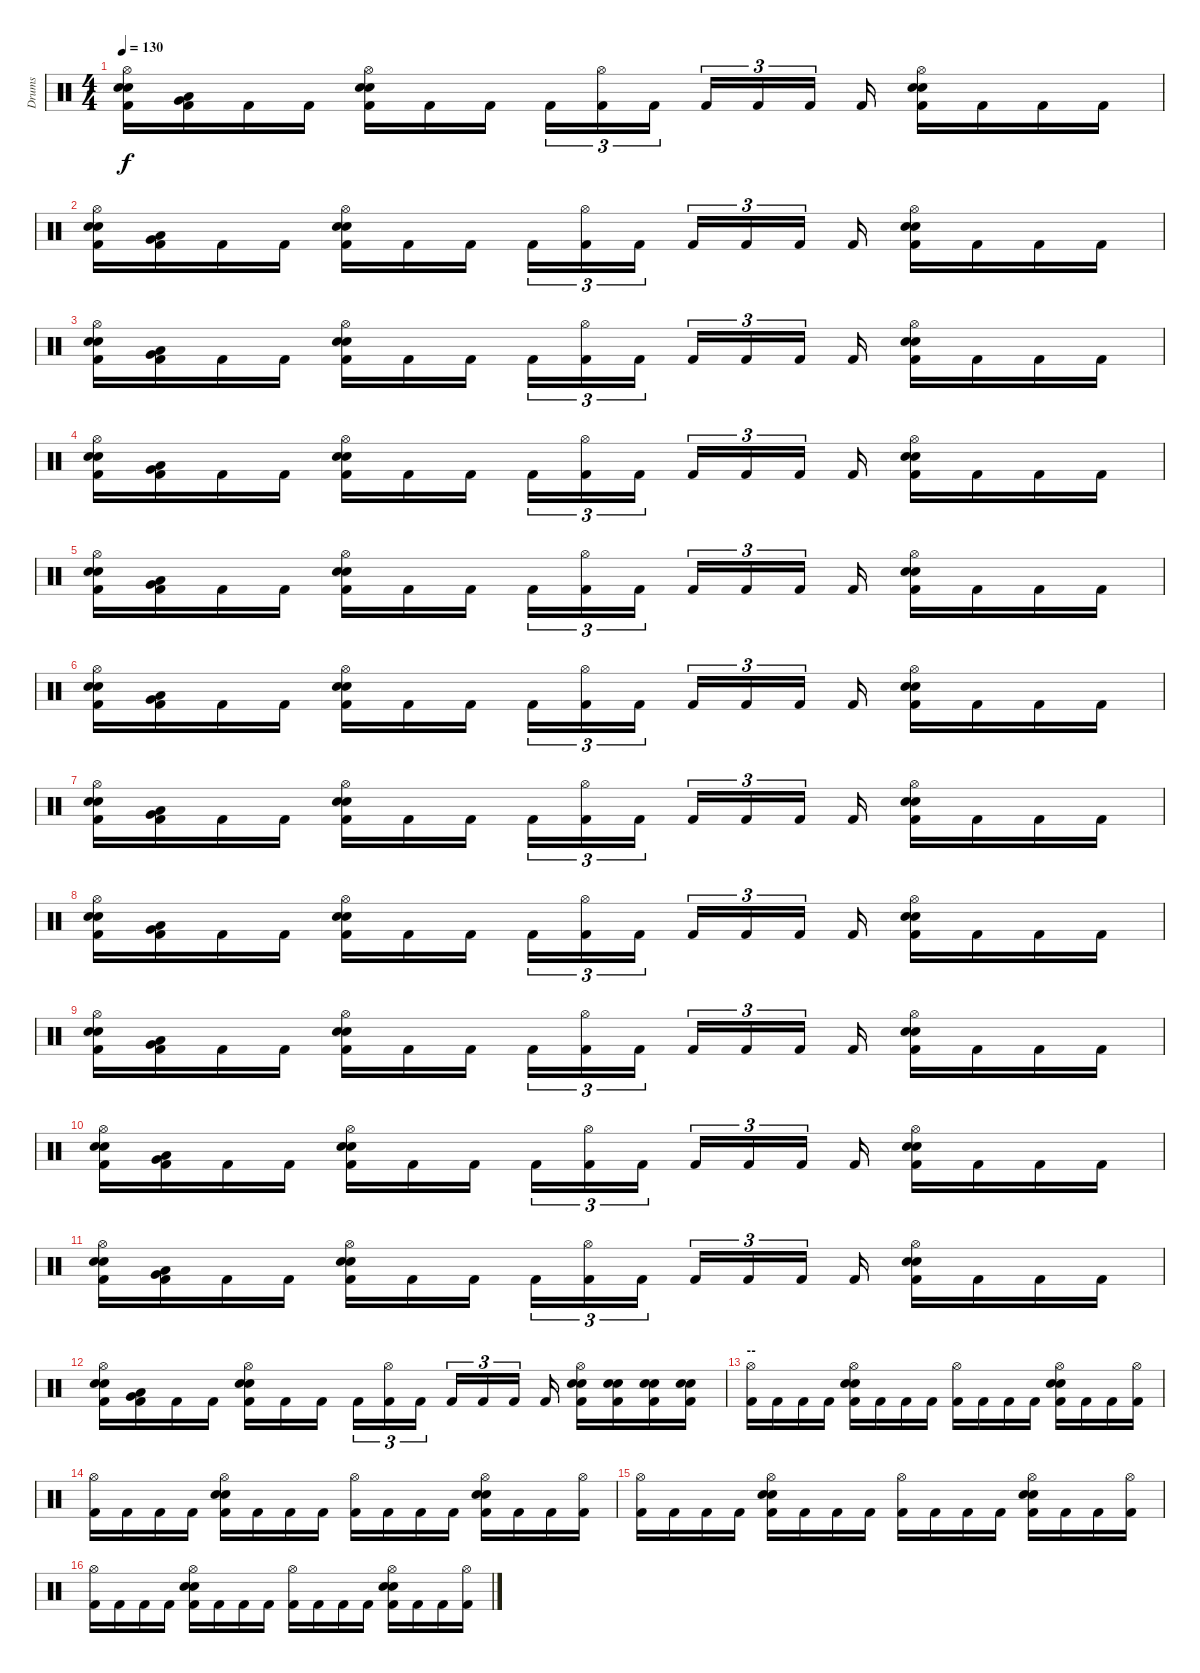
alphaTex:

\track ("Drums" "Drums") {instrument percussion}
\staff {score}
\articulation defaults
\ts (4 4)
\tempo 130
\clef neutral
\ks c
("Hi-Hat (open)" "Snare (hit) 2" "Electric Snare (hit)" "Kick (hit) 2").16{dy f} ("Very Low Tom (hit)" "Low Tom (hit)" "Kick (hit) 2").16 "Kick (hit) 2".16 "Kick (hit) 2".16 ("Hi-Hat (open)" "Snare (hit) 2" "Electric Snare (hit)" "Kick (hit) 2").16 "Kick (hit) 2".16 "Kick (hit) 2".16 "Kick (hit) 2".16{tu (3 2)} ("Hi-Hat (open)" "Kick (hit) 2").16{tu (3 2)} "Kick (hit) 2".16{tu (3 2)} "Kick (hit) 2".16{tu (3 2)} "Kick (hit) 2".16{tu (3 2)} "Kick (hit) 2".16{tu (3 2)} "Kick (hit) 2".16 ("Hi-Hat (open)" "Snare (hit) 2" "Electric Snare (hit)" "Kick (hit) 2").16 "Kick (hit) 2".16 "Kick (hit) 2".16 "Kick (hit) 2".16 |
("Hi-Hat (open)" "Snare (hit) 2" "Electric Snare (hit)" "Kick (hit) 2").16 ("Very Low Tom (hit)" "Low Tom (hit)" "Kick (hit) 2").16 "Kick (hit) 2".16 "Kick (hit) 2".16 ("Hi-Hat (open)" "Snare (hit) 2" "Electric Snare (hit)" "Kick (hit) 2").16 "Kick (hit) 2".16 "Kick (hit) 2".16 "Kick (hit) 2".16{tu (3 2)} ("Hi-Hat (open)" "Kick (hit) 2").16{tu (3 2)} "Kick (hit) 2".16{tu (3 2)} "Kick (hit) 2".16{tu (3 2)} "Kick (hit) 2".16{tu (3 2)} "Kick (hit) 2".16{tu (3 2)} "Kick (hit) 2".16 ("Hi-Hat (open)" "Snare (hit) 2" "Electric Snare (hit)" "Kick (hit) 2").16 "Kick (hit) 2".16 "Kick (hit) 2".16 "Kick (hit) 2".16 |
("Hi-Hat (open)" "Snare (hit) 2" "Electric Snare (hit)" "Kick (hit) 2").16 ("Very Low Tom (hit)" "Low Tom (hit)" "Kick (hit) 2").16 "Kick (hit) 2".16 "Kick (hit) 2".16 ("Hi-Hat (open)" "Snare (hit) 2" "Electric Snare (hit)" "Kick (hit) 2").16 "Kick (hit) 2".16 "Kick (hit) 2".16 "Kick (hit) 2".16{tu (3 2)} ("Hi-Hat (open)" "Kick (hit) 2").16{tu (3 2)} "Kick (hit) 2".16{tu (3 2)} "Kick (hit) 2".16{tu (3 2)} "Kick (hit) 2".16{tu (3 2)} "Kick (hit) 2".16{tu (3 2)} "Kick (hit) 2".16 ("Hi-Hat (open)" "Snare (hit) 2" "Electric Snare (hit)" "Kick (hit) 2").16 "Kick (hit) 2".16 "Kick (hit) 2".16 "Kick (hit) 2".16 |
("Hi-Hat (open)" "Snare (hit) 2" "Electric Snare (hit)" "Kick (hit) 2").16 ("Very Low Tom (hit)" "Low Tom (hit)" "Kick (hit) 2").16 "Kick (hit) 2".16 "Kick (hit) 2".16 ("Hi-Hat (open)" "Snare (hit) 2" "Electric Snare (hit)" "Kick (hit) 2").16 "Kick (hit) 2".16 "Kick (hit) 2".16 "Kick (hit) 2".16{tu (3 2)} ("Hi-Hat (open)" "Kick (hit) 2").16{tu (3 2)} "Kick (hit) 2".16{tu (3 2)} "Kick (hit) 2".16{tu (3 2)} "Kick (hit) 2".16{tu (3 2)} "Kick (hit) 2".16{tu (3 2)} "Kick (hit) 2".16 ("Hi-Hat (open)" "Snare (hit) 2" "Electric Snare (hit)" "Kick (hit) 2").16 "Kick (hit) 2".16 "Kick (hit) 2".16 "Kick (hit) 2".16 |
("Hi-Hat (open)" "Snare (hit) 2" "Electric Snare (hit)" "Kick (hit) 2").16 ("Very Low Tom (hit)" "Low Tom (hit)" "Kick (hit) 2").16 "Kick (hit) 2".16 "Kick (hit) 2".16 ("Hi-Hat (open)" "Snare (hit) 2" "Electric Snare (hit)" "Kick (hit) 2").16 "Kick (hit) 2".16 "Kick (hit) 2".16 "Kick (hit) 2".16{tu (3 2)} ("Hi-Hat (open)" "Kick (hit) 2").16{tu (3 2)} "Kick (hit) 2".16{tu (3 2)} "Kick (hit) 2".16{tu (3 2)} "Kick (hit) 2".16{tu (3 2)} "Kick (hit) 2".16{tu (3 2)} "Kick (hit) 2".16 ("Hi-Hat (open)" "Snare (hit) 2" "Electric Snare (hit)" "Kick (hit) 2").16 "Kick (hit) 2".16 "Kick (hit) 2".16 "Kick (hit) 2".16 |
("Hi-Hat (open)" "Snare (hit) 2" "Electric Snare (hit)" "Kick (hit) 2").16 ("Very Low Tom (hit)" "Low Tom (hit)" "Kick (hit) 2").16 "Kick (hit) 2".16 "Kick (hit) 2".16 ("Hi-Hat (open)" "Snare (hit) 2" "Electric Snare (hit)" "Kick (hit) 2").16 "Kick (hit) 2".16 "Kick (hit) 2".16 "Kick (hit) 2".16{tu (3 2)} ("Hi-Hat (open)" "Kick (hit) 2").16{tu (3 2)} "Kick (hit) 2".16{tu (3 2)} "Kick (hit) 2".16{tu (3 2)} "Kick (hit) 2".16{tu (3 2)} "Kick (hit) 2".16{tu (3 2)} "Kick (hit) 2".16 ("Hi-Hat (open)" "Snare (hit) 2" "Electric Snare (hit)" "Kick (hit) 2").16 "Kick (hit) 2".16 "Kick (hit) 2".16 "Kick (hit) 2".16 |
("Hi-Hat (open)" "Snare (hit) 2" "Electric Snare (hit)" "Kick (hit) 2").16 ("Very Low Tom (hit)" "Low Tom (hit)" "Kick (hit) 2").16 "Kick (hit) 2".16 "Kick (hit) 2".16 ("Hi-Hat (open)" "Snare (hit) 2" "Electric Snare (hit)" "Kick (hit) 2").16 "Kick (hit) 2".16 "Kick (hit) 2".16 "Kick (hit) 2".16{tu (3 2)} ("Hi-Hat (open)" "Kick (hit) 2").16{tu (3 2)} "Kick (hit) 2".16{tu (3 2)} "Kick (hit) 2".16{tu (3 2)} "Kick (hit) 2".16{tu (3 2)} "Kick (hit) 2".16{tu (3 2)} "Kick (hit) 2".16 ("Hi-Hat (open)" "Snare (hit) 2" "Electric Snare (hit)" "Kick (hit) 2").16 "Kick (hit) 2".16 "Kick (hit) 2".16 "Kick (hit) 2".16 |
("Hi-Hat (open)" "Snare (hit) 2" "Electric Snare (hit)" "Kick (hit) 2").16 ("Very Low Tom (hit)" "Low Tom (hit)" "Kick (hit) 2").16 "Kick (hit) 2".16 "Kick (hit) 2".16 ("Hi-Hat (open)" "Snare (hit) 2" "Electric Snare (hit)" "Kick (hit) 2").16 "Kick (hit) 2".16 "Kick (hit) 2".16 "Kick (hit) 2".16{tu (3 2)} ("Hi-Hat (open)" "Kick (hit) 2").16{tu (3 2)} "Kick (hit) 2".16{tu (3 2)} "Kick (hit) 2".16{tu (3 2)} "Kick (hit) 2".16{tu (3 2)} "Kick (hit) 2".16{tu (3 2)} "Kick (hit) 2".16 ("Hi-Hat (open)" "Snare (hit) 2" "Electric Snare (hit)" "Kick (hit) 2").16 "Kick (hit) 2".16 "Kick (hit) 2".16 "Kick (hit) 2".16 |
("Hi-Hat (open)" "Snare (hit) 2" "Electric Snare (hit)" "Kick (hit) 2").16 ("Very Low Tom (hit)" "Low Tom (hit)" "Kick (hit) 2").16 "Kick (hit) 2".16 "Kick (hit) 2".16 ("Hi-Hat (open)" "Snare (hit) 2" "Electric Snare (hit)" "Kick (hit) 2").16 "Kick (hit) 2".16 "Kick (hit) 2".16 "Kick (hit) 2".16{tu (3 2)} ("Hi-Hat (open)" "Kick (hit) 2").16{tu (3 2)} "Kick (hit) 2".16{tu (3 2)} "Kick (hit) 2".16{tu (3 2)} "Kick (hit) 2".16{tu (3 2)} "Kick (hit) 2".16{tu (3 2)} "Kick (hit) 2".16 ("Hi-Hat (open)" "Snare (hit) 2" "Electric Snare (hit)" "Kick (hit) 2").16 "Kick (hit) 2".16 "Kick (hit) 2".16 "Kick (hit) 2".16 |
("Hi-Hat (open)" "Snare (hit) 2" "Electric Snare (hit)" "Kick (hit) 2").16 ("Very Low Tom (hit)" "Low Tom (hit)" "Kick (hit) 2").16 "Kick (hit) 2".16 "Kick (hit) 2".16 ("Hi-Hat (open)" "Snare (hit) 2" "Electric Snare (hit)" "Kick (hit) 2").16 "Kick (hit) 2".16 "Kick (hit) 2".16 "Kick (hit) 2".16{tu (3 2)} ("Hi-Hat (open)" "Kick (hit) 2").16{tu (3 2)} "Kick (hit) 2".16{tu (3 2)} "Kick (hit) 2".16{tu (3 2)} "Kick (hit) 2".16{tu (3 2)} "Kick (hit) 2".16{tu (3 2)} "Kick (hit) 2".16 ("Hi-Hat (open)" "Snare (hit) 2" "Electric Snare (hit)" "Kick (hit) 2").16 "Kick (hit) 2".16 "Kick (hit) 2".16 "Kick (hit) 2".16 |
("Hi-Hat (open)" "Snare (hit) 2" "Electric Snare (hit)" "Kick (hit) 2").16 ("Very Low Tom (hit)" "Low Tom (hit)" "Kick (hit) 2").16 "Kick (hit) 2".16 "Kick (hit) 2".16 ("Hi-Hat (open)" "Snare (hit) 2" "Electric Snare (hit)" "Kick (hit) 2").16 "Kick (hit) 2".16 "Kick (hit) 2".16 "Kick (hit) 2".16{tu (3 2)} ("Hi-Hat (open)" "Kick (hit) 2").16{tu (3 2)} "Kick (hit) 2".16{tu (3 2)} "Kick (hit) 2".16{tu (3 2)} "Kick (hit) 2".16{tu (3 2)} "Kick (hit) 2".16{tu (3 2)} "Kick (hit) 2".16 ("Hi-Hat (open)" "Snare (hit) 2" "Electric Snare (hit)" "Kick (hit) 2").16 "Kick (hit) 2".16 "Kick (hit) 2".16 "Kick (hit) 2".16 |
("Hi-Hat (open)" "Snare (hit) 2" "Electric Snare (hit)" "Kick (hit) 2").16 ("Very Low Tom (hit)" "Low Tom (hit)" "Kick (hit) 2").16 "Kick (hit) 2".16 "Kick (hit) 2".16 ("Hi-Hat (open)" "Snare (hit) 2" "Electric Snare (hit)" "Kick (hit) 2").16 "Kick (hit) 2".16 "Kick (hit) 2".16 "Kick (hit) 2".16{tu (3 2)} ("Hi-Hat (open)" "Kick (hit) 2").16{tu (3 2)} "Kick (hit) 2".16{tu (3 2)} "Kick (hit) 2".16{tu (3 2)} "Kick (hit) 2".16{tu (3 2)} "Kick (hit) 2".16{tu (3 2)} "Kick (hit) 2".16 ("Hi-Hat (open)" "Snare (hit) 2" "Electric Snare (hit)" "Kick (hit) 2").16 ("Snare (hit) 2" "Electric Snare (hit)" "Kick (hit) 2").16 ("Snare (hit) 2" "Electric Snare (hit)" "Kick (hit) 2").16 ("Snare (hit) 2" "Electric Snare (hit)" "Kick (hit) 2").16 |
\section ("" "--")
("Hi-Hat (open)" "Kick (hit) 2").16 "Kick (hit) 2".16 "Kick (hit) 2".16 "Kick (hit) 2".16 ("Hi-Hat (open)" "Snare (hit) 2" "Electric Snare (hit)" "Kick (hit) 2").16 "Kick (hit) 2".16 "Kick (hit) 2".16 "Kick (hit) 2".16 ("Hi-Hat (open)" "Kick (hit) 2").16 "Kick (hit) 2".16 "Kick (hit) 2".16 "Kick (hit) 2".16 ("Hi-Hat (open)" "Snare (hit) 2" "Electric Snare (hit)" "Kick (hit) 2").16 "Kick (hit) 2".16 "Kick (hit) 2".16 ("Hi-Hat (open)" "Kick (hit) 2").16 |
("Hi-Hat (open)" "Kick (hit) 2").16 "Kick (hit) 2".16 "Kick (hit) 2".16 "Kick (hit) 2".16 ("Hi-Hat (open)" "Snare (hit) 2" "Electric Snare (hit)" "Kick (hit) 2").16 "Kick (hit) 2".16 "Kick (hit) 2".16 "Kick (hit) 2".16 ("Hi-Hat (open)" "Kick (hit) 2").16 "Kick (hit) 2".16 "Kick (hit) 2".16 "Kick (hit) 2".16 ("Hi-Hat (open)" "Snare (hit) 2" "Electric Snare (hit)" "Kick (hit) 2").16 "Kick (hit) 2".16 "Kick (hit) 2".16 ("Hi-Hat (open)" "Kick (hit) 2").16 |
("Hi-Hat (open)" "Kick (hit) 2").16 "Kick (hit) 2".16 "Kick (hit) 2".16 "Kick (hit) 2".16 ("Hi-Hat (open)" "Snare (hit) 2" "Electric Snare (hit)" "Kick (hit) 2").16 "Kick (hit) 2".16 "Kick (hit) 2".16 "Kick (hit) 2".16 ("Hi-Hat (open)" "Kick (hit) 2").16 "Kick (hit) 2".16 "Kick (hit) 2".16 "Kick (hit) 2".16 ("Hi-Hat (open)" "Snare (hit) 2" "Electric Snare (hit)" "Kick (hit) 2").16 "Kick (hit) 2".16 "Kick (hit) 2".16 ("Hi-Hat (open)" "Kick (hit) 2").16 |
("Hi-Hat (open)" "Kick (hit) 2").16 "Kick (hit) 2".16 "Kick (hit) 2".16 "Kick (hit) 2".16 ("Hi-Hat (open)" "Snare (hit) 2" "Electric Snare (hit)" "Kick (hit) 2").16 "Kick (hit) 2".16 "Kick (hit) 2".16 "Kick (hit) 2".16 ("Hi-Hat (open)" "Kick (hit) 2").16 "Kick (hit) 2".16 "Kick (hit) 2".16 "Kick (hit) 2".16 ("Hi-Hat (open)" "Snare (hit) 2" "Electric Snare (hit)" "Kick (hit) 2").16 "Kick (hit) 2".16 "Kick (hit) 2".16 ("Hi-Hat (open)" "Kick (hit) 2").16
